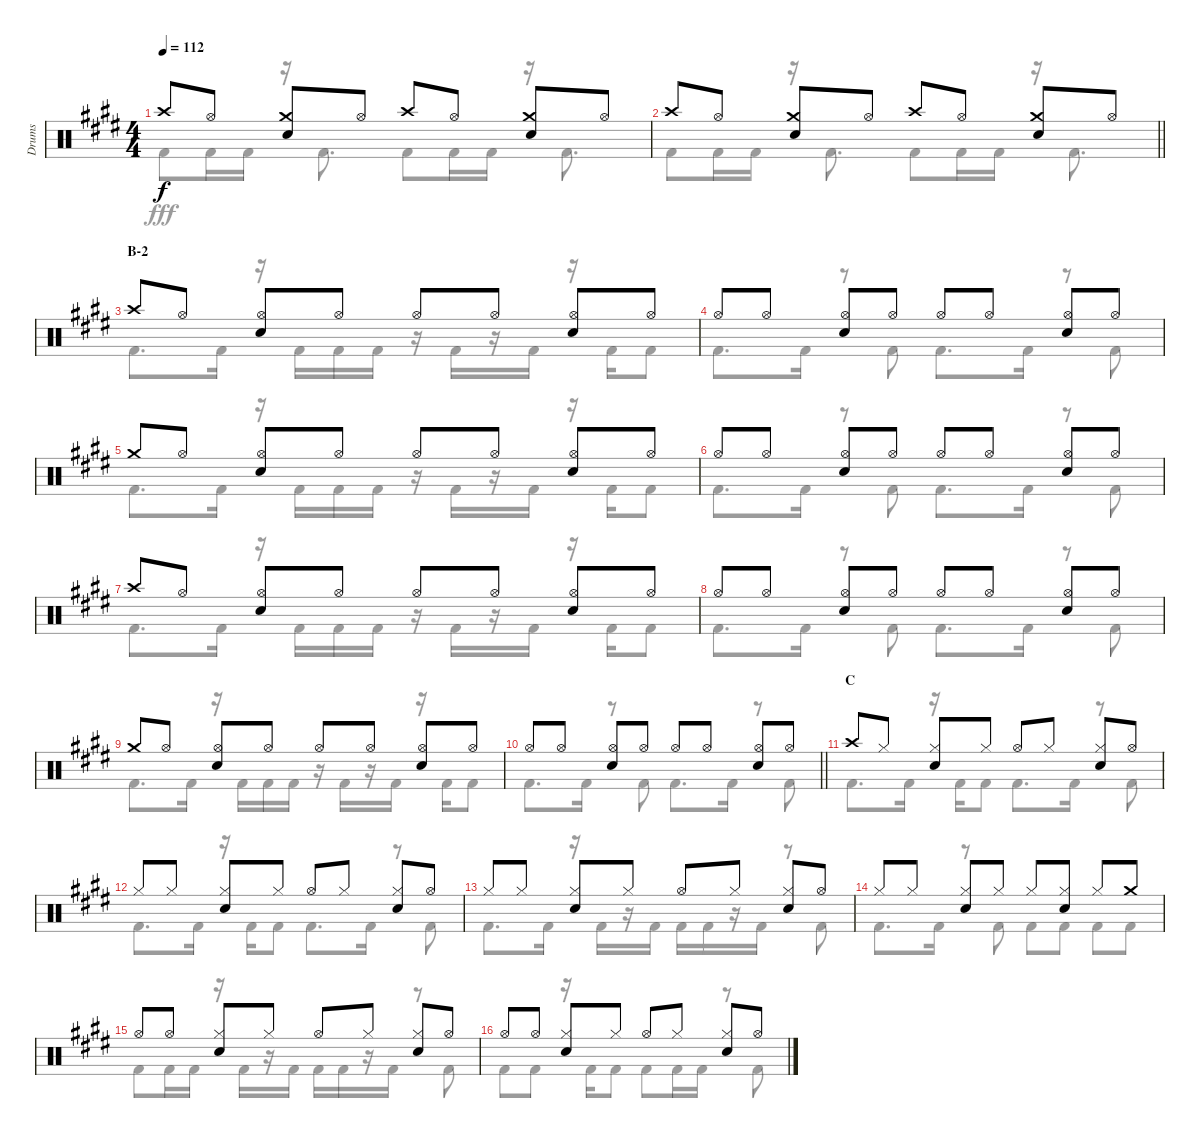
\track ("Drums" "Drums") {instrument percussion}
\staff {score}
\articulation defaults
\voice
\ts (4 4)
\tempo 112
\clef neutral
\ks e "Crash high (hit)".8{dy f} "Hi-Hat (open)".8
("Crash medium (hit)" "Snare (hit) 2").8 "Hi-Hat (open)".8 "Crash high (hit)".8 "Hi-Hat (open)".8 ("Crash medium (hit)" "Snare (hit) 2").8 "Hi-Hat (open)".8 |
\barLineRight lightlight "Crash high (hit)".8 "Hi-Hat (open)".8
("Crash medium (hit)" "Snare (hit) 2").8 "Hi-Hat (open)".8 "Crash high (hit)".8 "Hi-Hat (open)".8 ("Crash medium (hit)" "Snare (hit) 2").8 "Hi-Hat (open)".8 |
\section ("" "B-2")
"Crash high (hit)".8 "Hi-Hat (open)".8 ("Hi-Hat (open)" "Snare (hit) 2").8 "Hi-Hat (open)".8 "Hi-Hat (open)".8 "Hi-Hat (open)".8 ("Hi-Hat (open)" "Snare (hit) 2").8 "Hi-Hat (open)".8 |
"Hi-Hat (open)".8 "Hi-Hat (open)".8 ("Hi-Hat (open)" "Snare (hit) 2").8 "Hi-Hat (open)".8 "Hi-Hat (open)".8 "Hi-Hat (open)".8 ("Hi-Hat (open)" "Snare (hit) 2").8 "Hi-Hat (open)".8 |
"Crash medium (hit)".8 "Hi-Hat (open)".8 ("Hi-Hat (open)" "Snare (hit) 2").8 "Hi-Hat (open)".8 "Hi-Hat (open)".8 "Hi-Hat (open)".8 ("Hi-Hat (open)" "Snare (hit) 2").8 "Hi-Hat (open)".8 |
"Hi-Hat (open)".8 "Hi-Hat (open)".8 ("Hi-Hat (open)" "Snare (hit) 2").8 "Hi-Hat (open)".8 "Hi-Hat (open)".8 "Hi-Hat (open)".8 ("Hi-Hat (open)" "Snare (hit) 2").8 "Hi-Hat (open)".8 |
"Crash high (hit)".8 "Hi-Hat (open)".8 ("Hi-Hat (open)" "Snare (hit) 2").8 "Hi-Hat (open)".8 "Hi-Hat (open)".8 "Hi-Hat (open)".8 ("Hi-Hat (open)" "Snare (hit) 2").8 "Hi-Hat (open)".8 |
"Hi-Hat (open)".8 "Hi-Hat (open)".8 ("Hi-Hat (open)" "Snare (hit) 2").8 "Hi-Hat (open)".8 "Hi-Hat (open)".8 "Hi-Hat (open)".8 ("Hi-Hat (open)" "Snare (hit) 2").8 "Hi-Hat (open)".8 |
"Crash medium (hit)".8 "Hi-Hat (open)".8 ("Hi-Hat (open)" "Snare (hit) 2").8 "Hi-Hat (open)".8 "Hi-Hat (open)".8 "Hi-Hat (open)".8 ("Hi-Hat (open)" "Snare (hit) 2").8 "Hi-Hat (open)".8 |
\barLineRight lightlight "Hi-Hat (open)".8 "Hi-Hat (open)".8
("Hi-Hat (open)" "Snare (hit) 2").8 "Hi-Hat (open)".8 "Hi-Hat (open)".8 "Hi-Hat (open)".8 ("Hi-Hat (open)" "Snare (hit) 2").8 "Hi-Hat (open)".8 |
\section ("" "C")
"Crash high (hit)".8 "Hi-Hat (closed)".8 ("Hi-Hat (closed)" "Snare (hit) 2").8 "Hi-Hat (closed)".8 "Hi-Hat (open)".8 "Hi-Hat (closed)".8 ("Hi-Hat (closed)" "Snare (hit) 2").8 "Hi-Hat (open)".8 |
"Hi-Hat (closed)".8 "Hi-Hat (closed)".8 ("Hi-Hat (closed)" "Snare (hit) 2").8 "Hi-Hat (closed)".8 "Hi-Hat (open)".8 "Hi-Hat (closed)".8 ("Hi-Hat (closed)" "Snare (hit) 2").8 "Hi-Hat (open)".8 |
"Hi-Hat (closed)".8 "Hi-Hat (closed)".8 ("Hi-Hat (closed)" "Snare (hit) 2").8 "Hi-Hat (closed)".8 "Hi-Hat (open)".8 "Hi-Hat (closed)".8 ("Hi-Hat (closed)" "Snare (hit) 2").8 "Hi-Hat (open)".8 |
"Hi-Hat (closed)".8 "Hi-Hat (closed)".8 ("Hi-Hat (closed)" "Snare (hit) 2").8 "Hi-Hat (closed)".8 "Hi-Hat (closed)".8 ("Hi-Hat (closed)" "Snare (hit) 2").8 "Hi-Hat (closed)".8 "Crash medium (hit)".8 |
"Hi-Hat (open)".8 "Hi-Hat (open)".8 ("Hi-Hat (closed)" "Snare (hit) 2").8 "Hi-Hat (closed)".8 "Hi-Hat (open)".8 "Hi-Hat (closed)".8 ("Hi-Hat (closed)" "Snare (hit) 2").8 "Hi-Hat (open)".8 |
"Hi-Hat (open)".8 "Hi-Hat (open)".8 ("Hi-Hat (closed)" "Snare (hit) 2").8 "Hi-Hat (closed)".8 "Hi-Hat (open)".8 "Hi-Hat (closed)".8 ("Hi-Hat (closed)" "Snare (hit) 2").8 "Hi-Hat (open)".8
\voice
\clef neutral
\ottava regular
\simile none
\ks e "Kick (hit) 2".8{dy fff} "Kick (hit) 2".16 "Kick (hit) 2".16
r.16 "Kick (hit) 2".8{d} "Kick (hit) 2".8 "Kick (hit) 2".16 "Kick (hit) 2".16 r.16 "Kick (hit) 2".8{d} |
\barLineRight lightlight "Kick (hit) 2".8 "Kick (hit) 2".16 "Kick (hit) 2".16
r.16 "Kick (hit) 2".8{d} "Kick (hit) 2".8 "Kick (hit) 2".16 "Kick (hit) 2".16 r.16 "Kick (hit) 2".8{d} |
"Kick (hit) 2".8{d} "Kick (hit) 2".16 r.16 "Kick (hit) 2".16 "Kick (hit) 2".16 "Kick (hit) 2".16 r.16 "Kick (hit) 2".16 r.16 "Kick (hit) 2".16 r.16 "Kick (hit) 2".16 "Kick (hit) 2".8 |
"Kick (hit) 2".8{d} "Kick (hit) 2".16 r.8 "Kick (hit) 2".8 "Kick (hit) 2".8{d} "Kick (hit) 2".16 r.8 "Kick (hit) 2".8 |
"Kick (hit) 2".8{d} "Kick (hit) 2".16 r.16 "Kick (hit) 2".16 "Kick (hit) 2".16 "Kick (hit) 2".16 r.16 "Kick (hit) 2".16 r.16 "Kick (hit) 2".16 r.16 "Kick (hit) 2".16 "Kick (hit) 2".8 |
"Kick (hit) 2".8{d} "Kick (hit) 2".16 r.8 "Kick (hit) 2".8 "Kick (hit) 2".8{d} "Kick (hit) 2".16 r.8 "Kick (hit) 2".8 |
"Kick (hit) 2".8{d} "Kick (hit) 2".16 r.16 "Kick (hit) 2".16 "Kick (hit) 2".16 "Kick (hit) 2".16 r.16 "Kick (hit) 2".16 r.16 "Kick (hit) 2".16 r.16 "Kick (hit) 2".16 "Kick (hit) 2".8 |
"Kick (hit) 2".8{d} "Kick (hit) 2".16 r.8 "Kick (hit) 2".8 "Kick (hit) 2".8{d} "Kick (hit) 2".16 r.8 "Kick (hit) 2".8 |
"Kick (hit) 2".8{d} "Kick (hit) 2".16 r.16 "Kick (hit) 2".16 "Kick (hit) 2".16 "Kick (hit) 2".16 r.16 "Kick (hit) 2".16 r.16 "Kick (hit) 2".16 r.16 "Kick (hit) 2".16 "Kick (hit) 2".8 |
\barLineRight lightlight "Kick (hit) 2".8{d} "Kick (hit) 2".16
r.8 "Kick (hit) 2".8 "Kick (hit) 2".8{d} "Kick (hit) 2".16 r.8 "Kick (hit) 2".8 |
"Kick (hit) 2".8{d} "Kick (hit) 2".16 r.16 "Kick (hit) 2".16 "Kick (hit) 2".8 "Kick (hit) 2".8{d} "Kick (hit) 2".16 r.8 "Kick (hit) 2".8 |
"Kick (hit) 2".8{d} "Kick (hit) 2".16 r.16 "Kick (hit) 2".16 "Kick (hit) 2".8 "Kick (hit) 2".8{d} "Kick (hit) 2".16 r.8 "Kick (hit) 2".8 |
"Kick (hit) 2".8{d} "Kick (hit) 2".16 r.16 "Kick (hit) 2".16 r.16 "Kick (hit) 2".16 "Kick (hit) 2".16 "Kick (hit) 2".16 r.16 "Kick (hit) 2".16 r.8 "Kick (hit) 2".8 |
"Kick (hit) 2".8{d} "Kick (hit) 2".16 r.8 "Kick (hit) 2".8 "Kick (hit) 2".8 "Kick (hit) 2".8 "Kick (hit) 2".8 "Kick (hit) 2".8 |
"Kick (hit) 2".8 "Kick (hit) 2".16 "Kick (hit) 2".16 r.16 "Kick (hit) 2".16 r.16 "Kick (hit) 2".16 "Kick (hit) 2".16 "Kick (hit) 2".16 r.16 "Kick (hit) 2".16 r.8 "Kick (hit) 2".8 |
"Kick (hit) 2".8 "Kick (hit) 2".8 r.16 "Kick (hit) 2".16 "Kick (hit) 2".8 "Kick (hit) 2".8 "Kick (hit) 2".16 "Kick (hit) 2".16 r.8 "Kick (hit) 2".8
